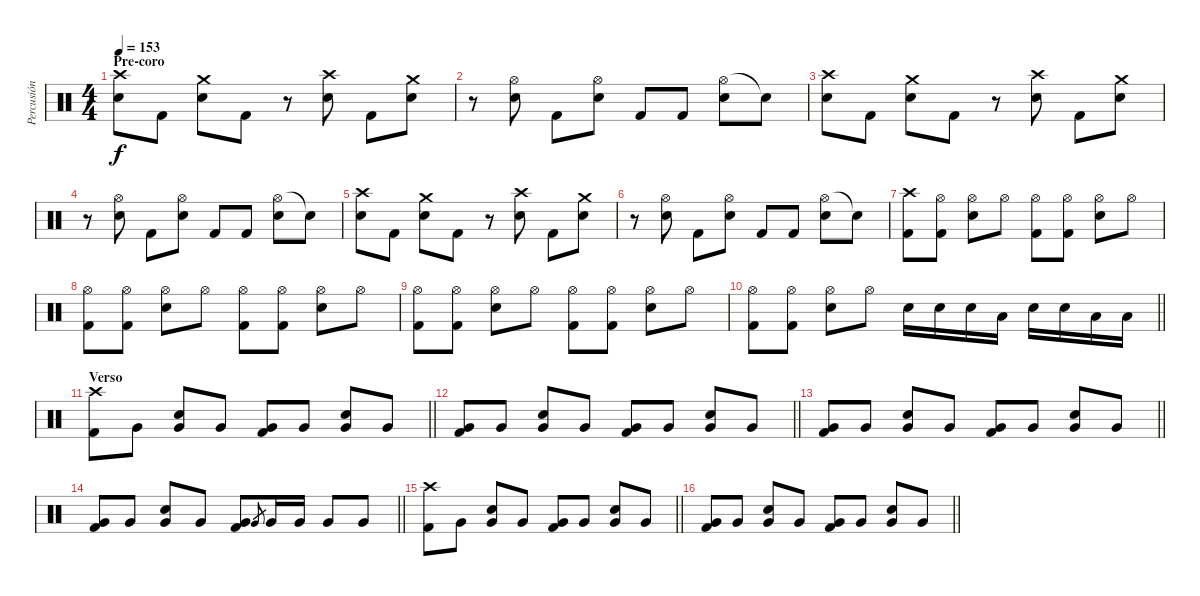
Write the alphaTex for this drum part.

\track ("Percusión" "Percusión") {instrument percussion}
\staff {score}
\articulation defaults
\ts (4 4)
\section ("" "Pre-coro")
\tempo 153
\clef neutral
\ks c
("Crash high (hit)" "Snare (hit) 2").8{dy f} "Kick (hit) 2".8 ("Crash medium (hit)" "Snare (hit) 2").8 "Kick (hit) 2".8 r.8 ("Crash high (hit)" "Snare (hit) 2").8 "Kick (hit) 2".8 ("Crash medium (hit)" "Snare (hit) 2").8 |
r.8 ("Hi-Hat (open)" "Snare (hit) 2").8 "Kick (hit) 2".8 ("Hi-Hat (open)" "Snare (hit) 2").8 "Kick (hit) 2".8 "Kick (hit) 2".8 ("Hi-Hat (open)" "Snare (hit) 2").8 "Snare (hit)"{t}.8 |
("Crash high (hit)" "Snare (hit) 2").8 "Kick (hit) 2".8 ("Crash medium (hit)" "Snare (hit) 2").8 "Kick (hit) 2".8 r.8 ("Crash high (hit)" "Snare (hit) 2").8 "Kick (hit) 2".8 ("Crash medium (hit)" "Snare (hit) 2").8 |
r.8 ("Hi-Hat (open)" "Snare (hit) 2").8 "Kick (hit) 2".8 ("Hi-Hat (open)" "Snare (hit) 2").8 "Kick (hit) 2".8 "Kick (hit) 2".8 ("Hi-Hat (open)" "Snare (hit) 2").8 "Snare (hit)"{t}.8 |
("Crash high (hit)" "Snare (hit) 2").8 "Kick (hit) 2".8 ("Crash medium (hit)" "Snare (hit) 2").8 "Kick (hit) 2".8 r.8 ("Crash high (hit)" "Snare (hit) 2").8 "Kick (hit) 2".8 ("Crash medium (hit)" "Snare (hit) 2").8 |
r.8 ("Hi-Hat (open)" "Snare (hit) 2").8 "Kick (hit) 2".8 ("Hi-Hat (open)" "Snare (hit) 2").8 "Kick (hit) 2".8 "Kick (hit) 2".8 ("Hi-Hat (open)" "Snare (hit) 2").8 "Snare (hit)"{t}.8 |
("Crash high (hit)" "Kick (hit) 2").8 ("Hi-Hat (open)" "Kick (hit) 2").8 ("Hi-Hat (open)" "Snare (hit) 2").8 "Hi-Hat (open)".8 ("Hi-Hat (open)" "Kick (hit) 2").8 ("Hi-Hat (open)" "Kick (hit) 2").8 ("Hi-Hat (open)" "Snare (hit) 2").8 "Hi-Hat (open)".8 |
("Hi-Hat (open)" "Kick (hit) 2").8 ("Hi-Hat (open)" "Kick (hit) 2").8 ("Hi-Hat (open)" "Snare (hit) 2").8 "Hi-Hat (open)".8 ("Hi-Hat (open)" "Kick (hit) 2").8 ("Hi-Hat (open)" "Kick (hit) 2").8 ("Hi-Hat (open)" "Snare (hit) 2").8 "Hi-Hat (open)".8 |
("Hi-Hat (open)" "Kick (hit) 2").8 ("Hi-Hat (open)" "Kick (hit) 2").8 ("Hi-Hat (open)" "Snare (hit) 2").8 "Hi-Hat (open)".8 ("Hi-Hat (open)" "Kick (hit) 2").8 ("Hi-Hat (open)" "Kick (hit) 2").8 ("Hi-Hat (open)" "Snare (hit) 2").8 "Hi-Hat (open)".8 |
\barLineRight lightlight
("Hi-Hat (open)" "Kick (hit) 2").8 ("Hi-Hat (open)" "Kick (hit) 2").8 ("Hi-Hat (open)" "Snare (hit) 2").8 "Hi-Hat (open)".8 "Snare (hit) 2".16 "Snare (hit) 2".16 "Snare (hit) 2".16 "Low Tom (hit)".16 "Snare (hit) 2".16 "Snare (hit) 2".16 "Low Tom (hit)".16 "Low Tom (hit)".16 |
\section ("" "Verso")
\barLineRight lightlight
("Crash high (hit)" "Kick (hit) 2").8 "Very Low Tom (hit)".8 ("Very Low Tom (hit)" "Snare (hit) 2").8 "Very Low Tom (hit)".8 ("Very Low Tom (hit)" "Kick (hit) 2").8 "Very Low Tom (hit)".8 ("Very Low Tom (hit)" "Snare (hit) 2").8 "Very Low Tom (hit)".8 |
\barLineRight lightlight
("Very Low Tom (hit)" "Kick (hit) 2").8 "Very Low Tom (hit)".8 ("Very Low Tom (hit)" "Snare (hit) 2").8 "Very Low Tom (hit)".8 ("Very Low Tom (hit)" "Kick (hit) 2").8 "Very Low Tom (hit)".8 ("Very Low Tom (hit)" "Snare (hit) 2").8 "Very Low Tom (hit)".8 |
\barLineRight lightlight
("Very Low Tom (hit)" "Kick (hit) 2").8 "Very Low Tom (hit)".8 ("Very Low Tom (hit)" "Snare (hit) 2").8 "Very Low Tom (hit)".8 ("Very Low Tom (hit)" "Kick (hit) 2").8 "Very Low Tom (hit)".8 ("Very Low Tom (hit)" "Snare (hit) 2").8 "Very Low Tom (hit)".8 |
\barLineRight lightlight
("Very Low Tom (hit)" "Kick (hit) 2").8 "Very Low Tom (hit)".8 ("Very Low Tom (hit)" "Snare (hit) 2").8 "Very Low Tom (hit)".8 ("Very Low Tom (hit)" "Kick (hit) 2").8 "Very Low Tom (hit)".8{gr} "Very Low Tom (hit)".16 "Very Low Tom (hit)".16 "Very Low Tom (hit)".8 "Very Low Tom (hit)".8 |
\barLineRight lightlight
("Crash high (hit)" "Kick (hit) 2").8 "Very Low Tom (hit)".8 ("Very Low Tom (hit)" "Snare (hit) 2").8 "Very Low Tom (hit)".8 ("Very Low Tom (hit)" "Kick (hit) 2").8 "Very Low Tom (hit)".8 ("Very Low Tom (hit)" "Snare (hit) 2").8 "Very Low Tom (hit)".8 |
\barLineRight lightlight
("Very Low Tom (hit)" "Kick (hit) 2").8 "Very Low Tom (hit)".8 ("Very Low Tom (hit)" "Snare (hit) 2").8 "Very Low Tom (hit)".8 ("Very Low Tom (hit)" "Kick (hit) 2").8 "Very Low Tom (hit)".8 ("Very Low Tom (hit)" "Snare (hit) 2").8 "Very Low Tom (hit)".8
